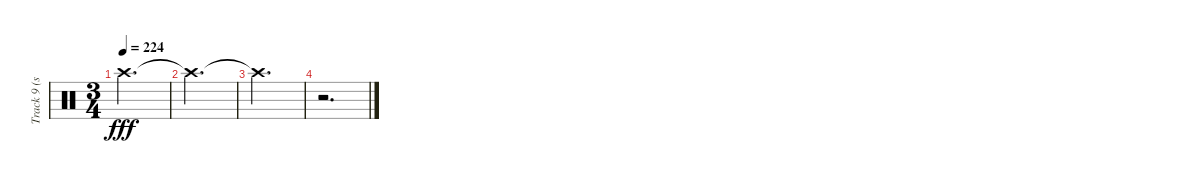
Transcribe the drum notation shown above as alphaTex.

\track ("Track 9 (snare)" "Track 9 (s") {instrument percussion}
\staff {score}
\articulation defaults
\ts (3 4)
\tempo 224
\clef neutral
\ks c "Crash high (hit)".2{d dy fff}
|
"Crash high (hit)"{t}.2{d} |
"Crash high (hit)"{t}.2{d} |
r.2{d}
